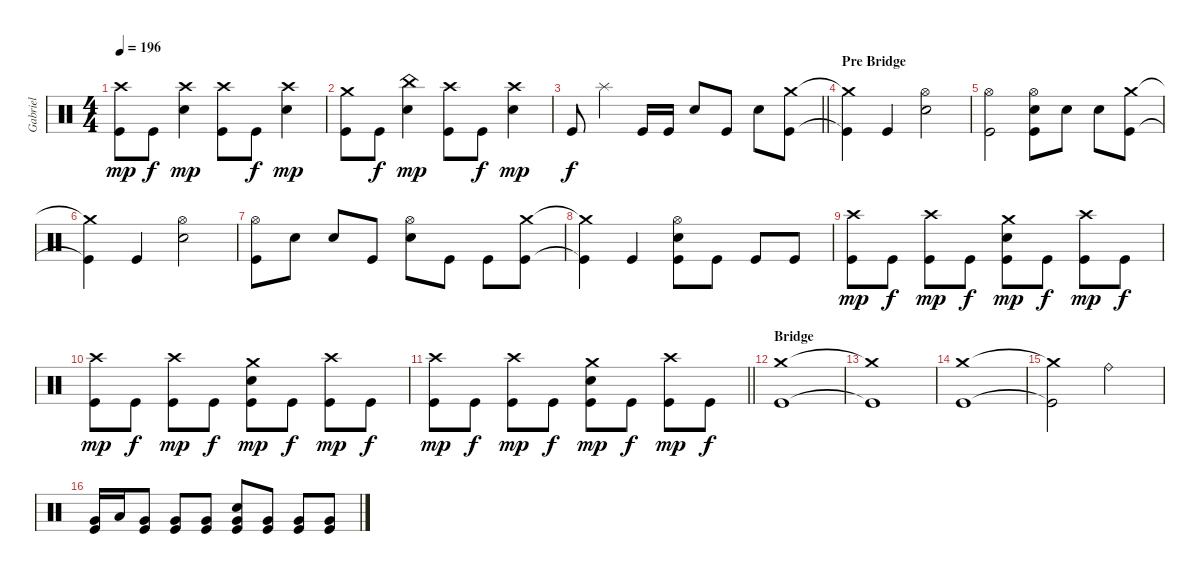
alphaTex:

\track ("Gabriel" "Gabriel") {instrument percussion}
\staff {score}
\articulation defaults
\ts (4 4)
\tempo 196
\clef neutral
\ks aminor
("Crash high (hit)" "Kick (hit)").8{dy mp} "Kick (hit)".8{dy f} ("Crash high (hit)" "Snare (hit) 2").4{dy mp} ("Crash high (hit)" "Kick (hit)").8 "Kick (hit)".8{dy f} ("Crash high (hit)" "Snare (hit) 2").4{dy mp} |
("Crash medium (hit)" "Kick (hit)").8 "Kick (hit)".8{dy f} ("China (hit)" "Snare (hit) 2").4{dy mp} ("Crash high (hit)" "Kick (hit)").8 "Kick (hit)".8{dy f} ("Crash high (hit)" "Snare (hit) 2").4{dy mp} |
\barLineRight lightlight "Kick (hit)".8{dy f} "Splash (hit)".4 "Kick (hit)".16 "Kick (hit)".16 "Snare (hit) 2".8 "Kick (hit)".8 "Snare (hit) 2".8
("Crash medium (hit)" "Kick (hit)").8 |
\section ("" "Pre Bridge")
("Crash medium (hit)"{t} "Kick (hit)"{t}).4 "Kick (hit)".4 ("Hi-Hat (open)" "Snare (hit) 2").2 |
("Hi-Hat (open)" "Kick (hit)").2 ("Hi-Hat (open)" "Snare (hit) 2" "Kick (hit)").8 "Snare (hit) 2".8 "Snare (hit) 2".8 ("Crash medium (hit)" "Kick (hit)").8 |
("Crash medium (hit)"{t} "Kick (hit)"{t}).4 "Kick (hit)".4 ("Hi-Hat (open)" "Snare (hit) 2").2 |
("Hi-Hat (open)" "Kick (hit)").8 "Snare (hit) 2".8 "Snare (hit) 2".8 "Kick (hit)".8 ("Hi-Hat (open)" "Snare (hit) 2").8 "Kick (hit)".8 "Kick (hit)".8 ("Crash medium (hit)" "Kick (hit)").8 |
("Crash medium (hit)"{t} "Kick (hit)"{t}).4 "Kick (hit)".4 ("Hi-Hat (open)" "Snare (hit) 2" "Kick (hit)").8 "Kick (hit)".8 "Kick (hit)".8 "Kick (hit)".8 |
("Crash high (hit)" "Kick (hit)").8{dy mp} "Kick (hit)".8{dy f} ("Crash high (hit)" "Kick (hit)").8{dy mp} "Kick (hit)".8{dy f} ("Crash medium (hit)" "Snare (hit) 2" "Kick (hit)").8{dy mp} "Kick (hit)".8{dy f} ("Crash high (hit)" "Kick (hit)").8{dy mp} "Kick (hit)".8{dy f} |
("Crash high (hit)" "Kick (hit)").8{dy mp} "Kick (hit)".8{dy f} ("Crash high (hit)" "Kick (hit)").8{dy mp} "Kick (hit)".8{dy f} ("Crash medium (hit)" "Snare (hit) 2" "Kick (hit)").8{dy mp} "Kick (hit)".8{dy f} ("Crash high (hit)" "Kick (hit)").8{dy mp} "Kick (hit)".8{dy f} |
\barLineRight lightlight
("Crash high (hit)" "Kick (hit)").8{dy mp} "Kick (hit)".8{dy f} ("Crash high (hit)" "Kick (hit)").8{dy mp} "Kick (hit)".8{dy f} ("Crash medium (hit)" "Snare (hit) 2" "Kick (hit)").8{dy mp} "Kick (hit)".8{dy f} ("Crash high (hit)" "Kick (hit)").8{dy mp} "Kick (hit)".8{dy f} |
\section ("" "Bridge")
("Crash medium (hit)" "Kick (hit)").1 |
("Crash medium (hit)"{t} "Kick (hit)"{t}).1 |
("Crash medium (hit)" "Kick (hit)").1 |
("Crash medium (hit)"{t} "Kick (hit)"{t}).2 "Ride (bell)".2 |
("Very Low Tom (hit)" "Kick (hit)").16 "Low Tom (hit)".16 ("Very Low Tom (hit)" "Kick (hit)").8 ("Very Low Tom (hit)" "Kick (hit)").8 ("Very Low Tom (hit)" "Kick (hit)").8 ("Snare (hit) 2" "Very Low Tom (hit)" "Kick (hit)").8 ("Very Low Tom (hit)" "Kick (hit)").8 ("Very Low Tom (hit)" "Kick (hit)").8 ("Very Low Tom (hit)" "Kick (hit)").8
